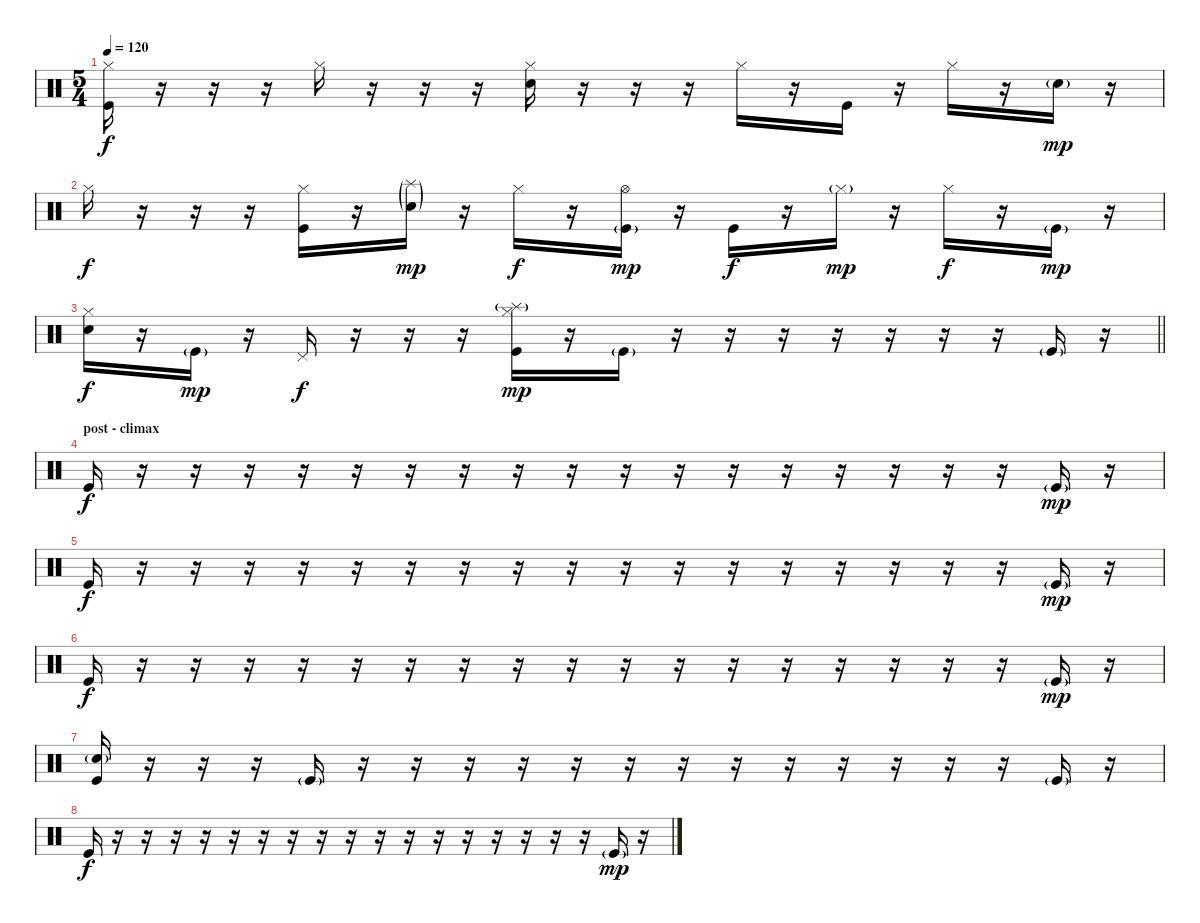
\track "" {instrument percussion}
\staff {score}
\articulation defaults
\ts (5 4)
\tempo 120
\clef neutral
\ks c
("Kick (hit)" "Hi-Hat (closed)").16{dy f} r.16 r.16 r.16 "Hi-Hat (closed)".16 r.16 r.16 r.16 ("Snare (hit) 2" "Hi-Hat (closed)").16 r.16 r.16 r.16 "Hi-Hat (closed)".16 r.16 "Kick (hit)".16 r.16 "Hi-Hat (closed)".16 r.16 "Snare (hit) 2"{g}.16{dy mp} r.16 |
"Hi-Hat (closed)".16{dy f} r.16 r.16 r.16 ("Kick (hit)" "Hi-Hat (closed)").16 r.16 ("Snare (hit) 2"{g} "Splash (hit)"{g}).16{dy mp} r.16 "Hi-Hat (closed)".16{dy f} r.16 ("Kick (hit)"{g} "Hi-Hat (open)").16{dy mp} r.16 "Kick (hit)".16{dy f} r.16 "Hi-Hat (closed)"{g}.16{dy mp} r.16 "Hi-Hat (closed)".16{dy f} r.16 "Kick (hit)"{g}.16{dy mp} r.16 |
\barLineRight lightlight
("Hi-Hat (closed)" "Snare (hit) 2").16{dy f} r.16 "Kick (hit)"{g}.16{dy mp} r.16 "Pedal Hi-Hat (hit)".16{dy f} r.16 r.16 r.16 ("Kick (hit)" "Hi-Hat (closed)" "Splash (hit)"{g}).16{dy mp} r.16 "Kick (hit)"{g}.16 r.16 r.16 r.16 r.16 r.16 r.16 r.16 "Kick (hit)"{g}.16 r.16 |
\section ("" "post - climax")
"Kick (hit)".16{dy f volume 3} r.16 r.16 r.16 r.16 r.16 r.16 r.16 r.16 r.16 r.16 r.16 r.16 r.16 r.16 r.16 r.16 r.16 "Kick (hit)"{g}.16{dy mp} r.16 |
"Kick (hit)".16{dy f} r.16 r.16 r.16 r.16 r.16 r.16 r.16 r.16 r.16 r.16 r.16 r.16 r.16 r.16 r.16 r.16 r.16 "Kick (hit)"{g}.16{dy mp} r.16 |
"Kick (hit)".16{dy f volume 0} r.16 r.16 r.16 r.16 r.16 r.16 r.16 r.16 r.16 r.16 r.16 r.16 r.16 r.16 r.16 r.16 r.16 "Kick (hit)"{g}.16{dy mp} r.16 |
("Kick (hit)" "Snare (hit) 2"{g}).16 r.16 r.16 r.16 "Kick (hit)"{g}.16 r.16 r.16 r.16 r.16 r.16 r.16 r.16 r.16 r.16 r.16 r.16 r.16 r.16 "Kick (hit)"{g}.16 r.16 |
"Kick (hit)".16{dy f} r.16 r.16 r.16 r.16 r.16 r.16 r.16 r.16 r.16 r.16 r.16 r.16 r.16 r.16 r.16 r.16 r.16 "Kick (hit)"{g}.16{dy mp} r.16
